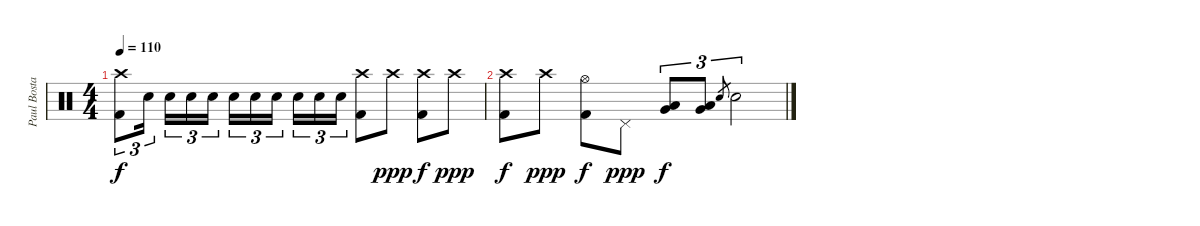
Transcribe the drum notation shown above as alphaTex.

\track ("Paul Bostaph" "Paul Bosta") {instrument percussion}
\staff {score}
\articulation defaults
\ts (4 4)
\tempo 110
\clef neutral
\ks c
("Crash high (hit)" "Kick (hit) 2").8{tu (3 2) dy f} "Electric Snare (hit)".16{tu (3 2)} "Electric Snare (hit)".16{tu (3 2)} "Electric Snare (hit)".16{tu (3 2)} "Electric Snare (hit)".16{tu (3 2)} "Electric Snare (hit)".16{tu (3 2)} "Electric Snare (hit)".16{tu (3 2)} "Electric Snare (hit)".16{tu (3 2)} "Electric Snare (hit)".16{tu (3 2)} "Electric Snare (hit)".16{tu (3 2)} "Electric Snare (hit)".16{tu (3 2)} ("Crash high (hit)" "Kick (hit) 2").8 "Crash high (hit)".8{dy ppp} ("Crash high (hit)" "Kick (hit) 2").8{dy f} "Crash high (hit)".8{dy ppp} |
("Crash high (hit)" "Kick (hit) 2").8{dy f} "Crash high (hit)".8{dy ppp} ("Hi-Hat (open)" "Kick (hit) 2").8{dy f} "Pedal Hi-Hat (hit)".8{dy ppp} ("Very Low Tom (hit)" "Low Floor Tom (hit)").8{tu (3 2) dy f} ("Very Low Tom (hit)" "Low Floor Tom (hit)").8{tu (3 2)} "Electric Snare (hit)".8{gr} "Electric Snare (hit)".2{tu (3 2)}
